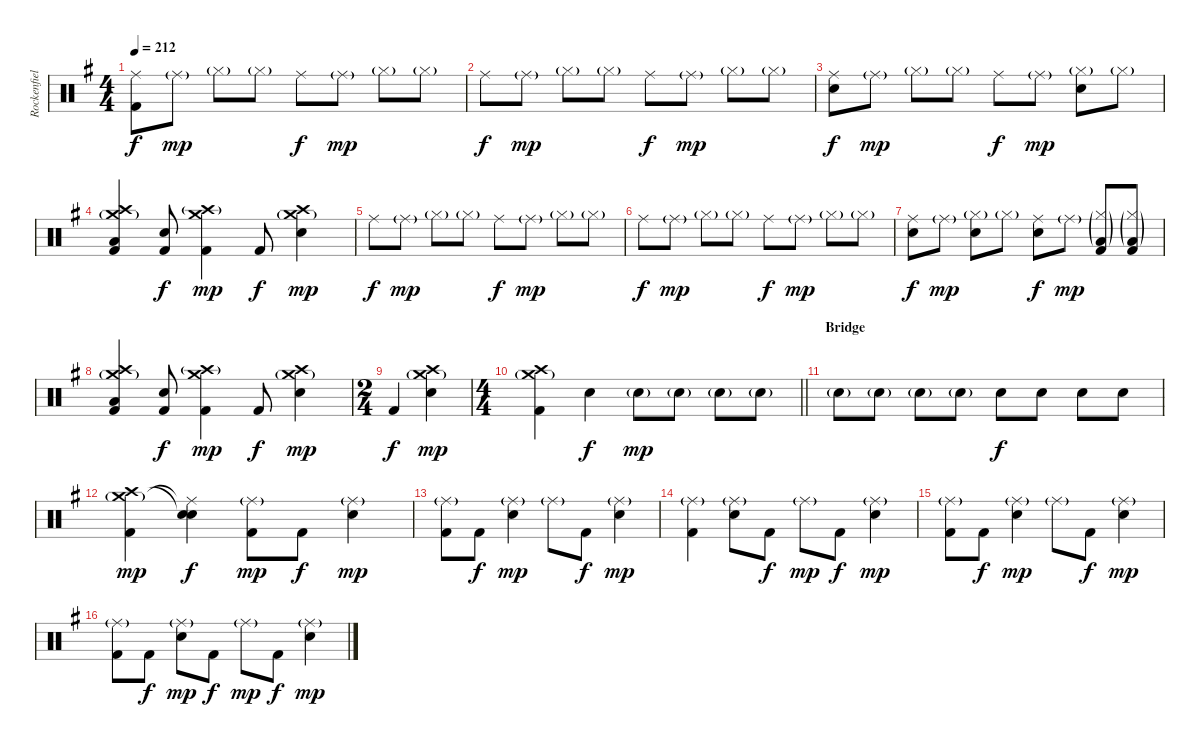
\track ("Rockenfield" "Rockenfiel") {instrument percussion}
\staff {score}
\articulation defaults
\ts (4 4)
\tempo 212
\clef neutral
\ks g
("Ride (middle)" "Kick (hit) 2").8{dy f} "Ride (middle)"{g}.8{dy mp} "Hi-Hat (closed)"{g}.8 "Hi-Hat (closed)"{g}.8 "Ride (middle)".8{dy f} "Ride (middle)"{g}.8{dy mp} "Hi-Hat (closed)"{g}.8 "Hi-Hat (closed)"{g}.8 |
"Ride (middle)".8{dy f} "Ride (middle)"{g}.8{dy mp} "Hi-Hat (closed)"{g}.8 "Hi-Hat (closed)"{g}.8 "Ride (middle)".8{dy f} "Ride (middle)"{g}.8{dy mp} "Hi-Hat (closed)"{g}.8 "Hi-Hat (closed)"{g}.8 |
("Ride (middle)" "Electric Snare (hit)").8{dy f} "Ride (middle)"{g}.8{dy mp} "Hi-Hat (closed)"{g}.8 "Hi-Hat (closed)"{g}.8 "Ride (middle)".8{dy f} "Ride (middle)"{g}.8{dy mp} ("Hi-Hat (closed)"{g} "Electric Snare (hit)").8 "Hi-Hat (closed)"{g}.8 |
("Crash high (hit)" "Crash medium (hit)"{g} "Low Floor Tom (hit)" "Kick (hit) 2").4 ("Electric Snare (hit)" "Kick (hit) 2").8{dy f} ("Crash medium (hit)" "Crash high (hit)"{g} "Kick (hit) 2").4{dy mp} "Kick (hit) 2".8{dy f} ("Crash high (hit)" "Crash medium (hit)"{g} "Electric Snare (hit)").4{dy mp} |
"Ride (middle)".8{dy f} "Ride (middle)"{g}.8{dy mp} "Hi-Hat (closed)"{g}.8 "Hi-Hat (closed)"{g}.8 "Ride (middle)".8{dy f} "Ride (middle)"{g}.8{dy mp} "Hi-Hat (closed)"{g}.8 "Hi-Hat (closed)"{g}.8 |
"Ride (middle)".8{dy f} "Ride (middle)"{g}.8{dy mp} "Hi-Hat (closed)"{g}.8 "Hi-Hat (closed)"{g}.8 "Ride (middle)".8{dy f} "Ride (middle)"{g}.8{dy mp} "Hi-Hat (closed)"{g}.8 "Hi-Hat (closed)"{g}.8 |
("Ride (middle)" "Electric Snare (hit)").8{dy f} "Ride (middle)"{g}.8{dy mp} ("Hi-Hat (closed)"{g} "Electric Snare (hit)").8 "Hi-Hat (closed)"{g}.8 ("Ride (middle)" "Electric Snare (hit)").8{dy f} "Ride (middle)"{g}.8{dy mp} ("Hi-Hat (closed)"{g} "Low Floor Tom (hit)"{g} "Kick (hit) 2").8 ("Hi-Hat (closed)"{g} "Low Floor Tom (hit)"{g} "Kick (hit) 2").8 |
("Crash high (hit)" "Crash medium (hit)"{g} "Low Floor Tom (hit)" "Kick (hit) 2").4 ("Electric Snare (hit)" "Kick (hit) 2").8{dy f} ("Crash medium (hit)" "Crash high (hit)"{g} "Kick (hit) 2").4{dy mp} "Kick (hit) 2".8{dy f} ("Crash high (hit)" "Crash medium (hit)"{g} "Electric Snare (hit)").4{dy mp} |
\ts (2 4)
"Kick (hit) 2".4{dy f} ("Crash high (hit)" "Crash medium (hit)"{g} "Electric Snare (hit)").4{dy mp} |
\ts (4 4)
\barLineRight lightlight
("Crash high (hit)" "Crash medium (hit)"{g} "Kick (hit) 2").4 "Electric Snare (hit)".4{dy f} "Electric Snare (hit)"{g}.8{dy mp} "Electric Snare (hit)"{g}.8 "Electric Snare (hit)"{g}.8 "Electric Snare (hit)"{g}.8 |
\section ("" "Bridge")
"Electric Snare (hit)"{g}.8 "Electric Snare (hit)"{g}.8 "Electric Snare (hit)"{g}.8 "Electric Snare (hit)"{g}.8 "Electric Snare (hit)".8{dy f} "Electric Snare (hit)".8 "Electric Snare (hit)".8 "Electric Snare (hit)".8 |
("Crash medium (hit)"{g} "Crash high (hit)" "Kick (hit) 2").4{dy mp} ("Ride (middle)"{t} "Snare (hit)"{t} "Electric Snare (hit)").4{dy f} ("Ride (middle)"{g} "Kick (hit) 2").8{dy mp} "Kick (hit) 2".8{dy f} ("Ride (middle)"{g} "Electric Snare (hit)").4{dy mp} |
("Ride (middle)"{g} "Kick (hit) 2").8 "Kick (hit) 2".8{dy f} ("Ride (middle)"{g} "Electric Snare (hit)").4{dy mp} "Ride (middle)"{g}.8 "Kick (hit) 2".8{dy f} ("Ride (middle)"{g} "Electric Snare (hit)").4{dy mp} |
("Ride (middle)"{g} "Kick (hit) 2").4 ("Ride (middle)"{g} "Electric Snare (hit)").8 "Kick (hit) 2".8{dy f} "Ride (middle)"{g}.8{dy mp} "Kick (hit) 2".8{dy f} ("Ride (middle)"{g} "Electric Snare (hit)").4{dy mp} |
("Ride (middle)"{g} "Kick (hit) 2").8 "Kick (hit) 2".8{dy f} ("Ride (middle)"{g} "Electric Snare (hit)").4{dy mp} "Ride (middle)"{g}.8 "Kick (hit) 2".8{dy f} ("Ride (middle)"{g} "Electric Snare (hit)").4{dy mp} |
("Ride (middle)"{g} "Kick (hit) 2").8 "Kick (hit) 2".8{dy f} ("Ride (middle)"{g} "Electric Snare (hit)").8{dy mp} "Kick (hit) 2".8{dy f} "Ride (middle)"{g}.8{dy mp} "Kick (hit) 2".8{dy f} ("Ride (middle)"{g} "Electric Snare (hit)").4{dy mp}
